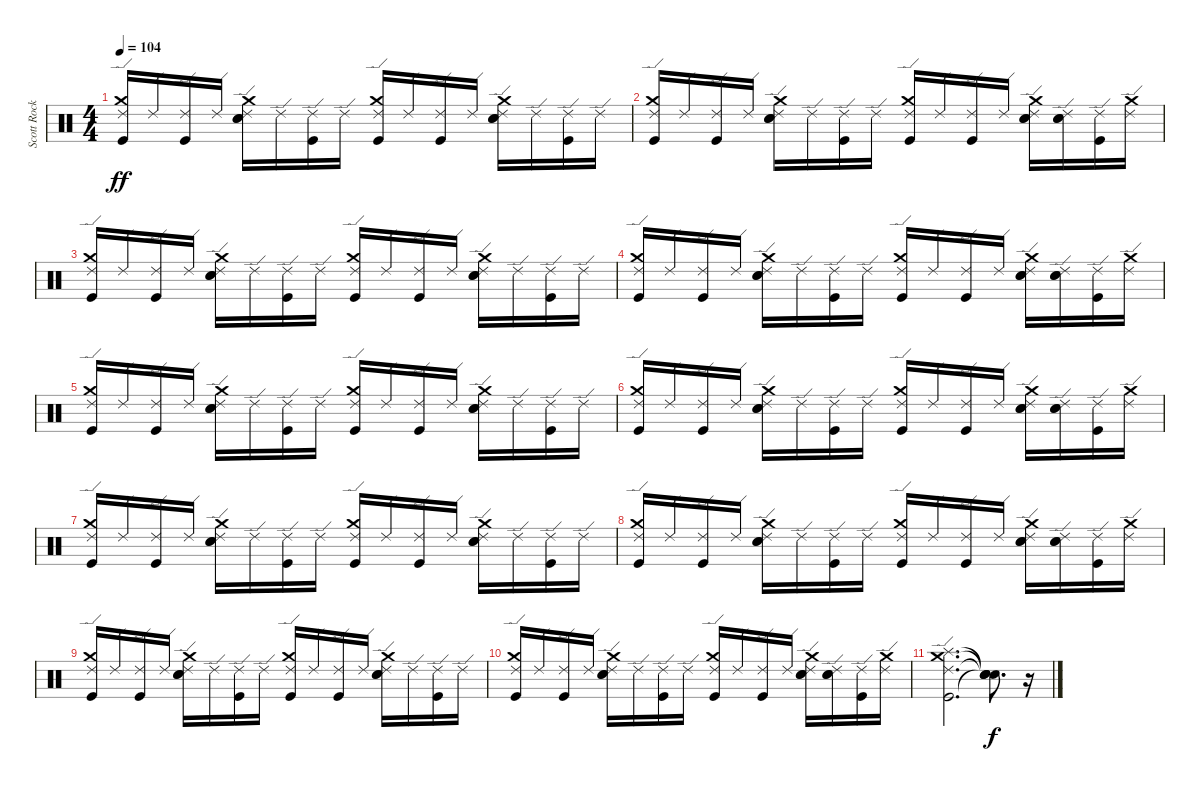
\track ("Scott Rockenfield" "Scott Rock") {instrument percussion}
\staff {score}
\articulation defaults
\ts (4 4)
\tempo 104
\clef neutral
\ks c
("Kick (hit)" "Crash medium (hit)" "Ride (edge) 2").16{dy ff} "Ride (edge) 2".16 ("Kick (hit)" "Ride (edge) 2").16 "Ride (edge) 2".16 ("Snare (hit) 2" "Electric Snare (hit)" "Crash medium (hit)" "Ride (edge) 2").16 "Ride (edge) 2".16 ("Kick (hit)" "Ride (edge) 2").16 "Ride (edge) 2".16 ("Kick (hit)" "Crash medium (hit)" "Ride (edge) 2").16 "Ride (edge) 2".16 ("Kick (hit)" "Ride (edge) 2").16 "Ride (edge) 2".16 ("Snare (hit) 2" "Electric Snare (hit)" "Crash medium (hit)" "Ride (edge) 2").16 "Ride (edge) 2".16 ("Kick (hit)" "Ride (edge) 2").16 "Ride (edge) 2".16 |
("Kick (hit)" "Crash medium (hit)" "Ride (edge) 2").16 "Ride (edge) 2".16 ("Kick (hit)" "Ride (edge) 2").16 "Ride (edge) 2".16 ("Snare (hit) 2" "Electric Snare (hit)" "Crash medium (hit)" "Ride (edge) 2").16 "Ride (edge) 2".16 ("Kick (hit)" "Ride (edge) 2").16 "Ride (edge) 2".16 ("Kick (hit)" "Crash medium (hit)" "Ride (edge) 2").16 "Ride (edge) 2".16 ("Kick (hit)" "Ride (edge) 2").16 "Ride (edge) 2".16 ("Snare (hit) 2" "Electric Snare (hit)" "Crash medium (hit)" "Ride (edge) 2").16 ("Snare (hit) 2" "Electric Snare (hit)" "Ride (edge) 2").16 ("Kick (hit)" "Ride (edge) 2").16 ("Crash medium (hit)" "Ride (edge) 2").16 |
("Kick (hit)" "Crash medium (hit)" "Ride (edge) 2").16 "Ride (edge) 2".16 ("Kick (hit)" "Ride (edge) 2").16 "Ride (edge) 2".16 ("Snare (hit) 2" "Electric Snare (hit)" "Crash medium (hit)" "Ride (edge) 2").16 "Ride (edge) 2".16 ("Kick (hit)" "Ride (edge) 2").16 "Ride (edge) 2".16 ("Kick (hit)" "Crash medium (hit)" "Ride (edge) 2").16 "Ride (edge) 2".16 ("Kick (hit)" "Ride (edge) 2").16 "Ride (edge) 2".16 ("Snare (hit) 2" "Electric Snare (hit)" "Crash medium (hit)" "Ride (edge) 2").16 "Ride (edge) 2".16 ("Kick (hit)" "Ride (edge) 2").16 "Ride (edge) 2".16 |
("Kick (hit)" "Crash medium (hit)" "Ride (edge) 2").16 "Ride (edge) 2".16 ("Kick (hit)" "Ride (edge) 2").16 "Ride (edge) 2".16 ("Snare (hit) 2" "Electric Snare (hit)" "Crash medium (hit)" "Ride (edge) 2").16 "Ride (edge) 2".16 ("Kick (hit)" "Ride (edge) 2").16 "Ride (edge) 2".16 ("Kick (hit)" "Crash medium (hit)" "Ride (edge) 2").16 "Ride (edge) 2".16 ("Kick (hit)" "Ride (edge) 2").16 "Ride (edge) 2".16 ("Snare (hit) 2" "Electric Snare (hit)" "Crash medium (hit)" "Ride (edge) 2").16 ("Snare (hit) 2" "Electric Snare (hit)" "Ride (edge) 2").16 ("Kick (hit)" "Ride (edge) 2").16 ("Crash medium (hit)" "Ride (edge) 2").16 |
("Kick (hit)" "Crash medium (hit)" "Ride (edge) 2").16 "Ride (edge) 2".16 ("Kick (hit)" "Ride (edge) 2").16 "Ride (edge) 2".16 ("Snare (hit) 2" "Electric Snare (hit)" "Crash medium (hit)" "Ride (edge) 2").16 "Ride (edge) 2".16 ("Kick (hit)" "Ride (edge) 2").16 "Ride (edge) 2".16 ("Kick (hit)" "Crash medium (hit)" "Ride (edge) 2").16 "Ride (edge) 2".16 ("Kick (hit)" "Ride (edge) 2").16 "Ride (edge) 2".16 ("Snare (hit) 2" "Electric Snare (hit)" "Crash medium (hit)" "Ride (edge) 2").16 "Ride (edge) 2".16 ("Kick (hit)" "Ride (edge) 2").16 "Ride (edge) 2".16 |
("Kick (hit)" "Crash medium (hit)" "Ride (edge) 2").16 "Ride (edge) 2".16 ("Kick (hit)" "Ride (edge) 2").16 "Ride (edge) 2".16 ("Snare (hit) 2" "Electric Snare (hit)" "Crash medium (hit)" "Ride (edge) 2").16 "Ride (edge) 2".16 ("Kick (hit)" "Ride (edge) 2").16 "Ride (edge) 2".16 ("Kick (hit)" "Crash medium (hit)" "Ride (edge) 2").16 "Ride (edge) 2".16 ("Kick (hit)" "Ride (edge) 2").16 "Ride (edge) 2".16 ("Snare (hit) 2" "Electric Snare (hit)" "Crash medium (hit)" "Ride (edge) 2").16 ("Snare (hit) 2" "Electric Snare (hit)" "Ride (edge) 2").16 ("Kick (hit)" "Ride (edge) 2").16 ("Crash medium (hit)" "Ride (edge) 2").16 |
("Kick (hit)" "Crash medium (hit)" "Ride (edge) 2").16 "Ride (edge) 2".16 ("Kick (hit)" "Ride (edge) 2").16 "Ride (edge) 2".16 ("Snare (hit) 2" "Electric Snare (hit)" "Crash medium (hit)" "Ride (edge) 2").16 "Ride (edge) 2".16 ("Kick (hit)" "Ride (edge) 2").16 "Ride (edge) 2".16 ("Kick (hit)" "Crash medium (hit)" "Ride (edge) 2").16 "Ride (edge) 2".16 ("Kick (hit)" "Ride (edge) 2").16 "Ride (edge) 2".16 ("Snare (hit) 2" "Electric Snare (hit)" "Crash medium (hit)" "Ride (edge) 2").16 "Ride (edge) 2".16 ("Kick (hit)" "Ride (edge) 2").16 "Ride (edge) 2".16 |
("Kick (hit)" "Crash medium (hit)" "Ride (edge) 2").16 "Ride (edge) 2".16 ("Kick (hit)" "Ride (edge) 2").16 "Ride (edge) 2".16 ("Snare (hit) 2" "Electric Snare (hit)" "Crash medium (hit)" "Ride (edge) 2").16 "Ride (edge) 2".16 ("Kick (hit)" "Ride (edge) 2").16 "Ride (edge) 2".16 ("Kick (hit)" "Crash medium (hit)" "Ride (edge) 2").16 "Ride (edge) 2".16 ("Kick (hit)" "Ride (edge) 2").16 "Ride (edge) 2".16 ("Snare (hit) 2" "Electric Snare (hit)" "Crash medium (hit)" "Ride (edge) 2").16 ("Snare (hit) 2" "Electric Snare (hit)" "Ride (edge) 2").16 ("Kick (hit)" "Ride (edge) 2").16 ("Crash medium (hit)" "Ride (edge) 2").16 |
("Kick (hit)" "Crash medium (hit)" "Ride (edge) 2").16 "Ride (edge) 2".16 ("Kick (hit)" "Ride (edge) 2").16 "Ride (edge) 2".16 ("Snare (hit) 2" "Electric Snare (hit)" "Crash medium (hit)" "Ride (edge) 2").16 "Ride (edge) 2".16 ("Kick (hit)" "Ride (edge) 2").16 "Ride (edge) 2".16 ("Kick (hit)" "Crash medium (hit)" "Ride (edge) 2").16 "Ride (edge) 2".16 ("Kick (hit)" "Ride (edge) 2").16 "Ride (edge) 2".16 ("Snare (hit) 2" "Electric Snare (hit)" "Crash medium (hit)" "Ride (edge) 2").16 "Ride (edge) 2".16 ("Kick (hit)" "Ride (edge) 2").16 "Ride (edge) 2".16 |
("Kick (hit)" "Crash medium (hit)" "Ride (edge) 2").16 "Ride (edge) 2".16 ("Kick (hit)" "Ride (edge) 2").16 "Ride (edge) 2".16 ("Snare (hit) 2" "Electric Snare (hit)" "Crash medium (hit)" "Ride (edge) 2").16 "Ride (edge) 2".16 ("Kick (hit)" "Ride (edge) 2").16 "Ride (edge) 2".16 ("Kick (hit)" "Crash medium (hit)" "Ride (edge) 2").16 "Ride (edge) 2".16 ("Kick (hit)" "Ride (edge) 2").16 "Ride (edge) 2".16 ("Snare (hit) 2" "Electric Snare (hit)" "Crash medium (hit)" "Ride (edge) 2").16 ("Snare (hit) 2" "Electric Snare (hit)" "Ride (edge) 2").16 ("Kick (hit)" "Ride (edge) 2").16 ("Crash medium (hit)" "Ride (edge) 2").16 |
("Kick (hit)" "Splash (hit)" "Crash medium (hit)" "Ride (edge) 2").2{d} ("Snare (hit)"{t} "Snare (hit)"{t} "Snare (hit)"{t} "Snare (hit)"{t}).8{d dy f} r.16
